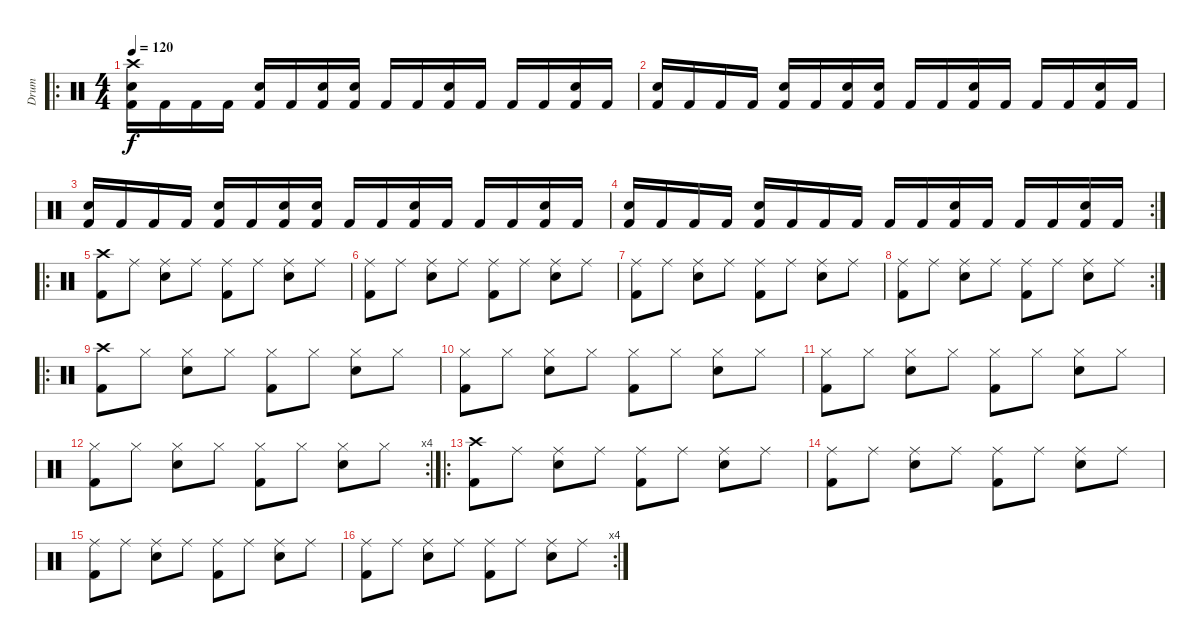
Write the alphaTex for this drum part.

\track ("Drum" "Drum") {instrument percussion}
\staff {score}
\articulation defaults
\ro
\ts (4 4)
\tempo 120
\clef neutral
\ks c
("Crash high (hit)" "Electric Snare (hit)" "Kick (hit) 2").16{dy f} "Kick (hit) 2".16 "Kick (hit) 2".16 "Kick (hit) 2".16 ("Electric Snare (hit)" "Kick (hit) 2").16 "Kick (hit) 2".16 ("Electric Snare (hit)" "Kick (hit) 2").16 ("Electric Snare (hit)" "Kick (hit) 2").16 "Kick (hit) 2".16 "Kick (hit) 2".16 ("Electric Snare (hit)" "Kick (hit) 2").16 "Kick (hit) 2".16 "Kick (hit) 2".16 "Kick (hit) 2".16 ("Electric Snare (hit)" "Kick (hit) 2").16 "Kick (hit) 2".16 |
("Electric Snare (hit)" "Kick (hit) 2").16 "Kick (hit) 2".16 "Kick (hit) 2".16 "Kick (hit) 2".16 ("Electric Snare (hit)" "Kick (hit) 2").16 "Kick (hit) 2".16 ("Electric Snare (hit)" "Kick (hit) 2").16 ("Electric Snare (hit)" "Kick (hit) 2").16 "Kick (hit) 2".16 "Kick (hit) 2".16 ("Electric Snare (hit)" "Kick (hit) 2").16 "Kick (hit) 2".16 "Kick (hit) 2".16 "Kick (hit) 2".16 ("Electric Snare (hit)" "Kick (hit) 2").16 "Kick (hit) 2".16 |
("Electric Snare (hit)" "Kick (hit) 2").16 "Kick (hit) 2".16 "Kick (hit) 2".16 "Kick (hit) 2".16 ("Electric Snare (hit)" "Kick (hit) 2").16 "Kick (hit) 2".16 ("Electric Snare (hit)" "Kick (hit) 2").16 ("Electric Snare (hit)" "Kick (hit) 2").16 "Kick (hit) 2".16 "Kick (hit) 2".16 ("Electric Snare (hit)" "Kick (hit) 2").16 "Kick (hit) 2".16 "Kick (hit) 2".16 "Kick (hit) 2".16 ("Electric Snare (hit)" "Kick (hit) 2").16 "Kick (hit) 2".16 |
\rc 2
("Electric Snare (hit)" "Kick (hit) 2").16 "Kick (hit) 2".16 "Kick (hit) 2".16 "Kick (hit) 2".16 ("Electric Snare (hit)" "Kick (hit) 2").16 "Kick (hit) 2".16 "Kick (hit) 2".16 "Kick (hit) 2".16 "Kick (hit) 2".16 "Kick (hit) 2".16 ("Electric Snare (hit)" "Kick (hit) 2").16 "Kick (hit) 2".16 "Kick (hit) 2".16 "Kick (hit) 2".16 ("Electric Snare (hit)" "Kick (hit) 2").16 "Kick (hit) 2".16 |
\ro
("Crash high (hit)" "Kick (hit) 2").8 "Ride (middle)".8 ("Ride (middle)" "Electric Snare (hit)").8 "Ride (middle)".8 ("Ride (middle)" "Kick (hit) 2").8 "Ride (middle)".8 ("Ride (middle)" "Electric Snare (hit)").8 "Ride (middle)".8 |
("Ride (middle)" "Kick (hit) 2").8 "Ride (middle)".8 ("Ride (middle)" "Electric Snare (hit)").8 "Ride (middle)".8 ("Ride (middle)" "Kick (hit) 2").8 "Ride (middle)".8 ("Ride (middle)" "Electric Snare (hit)").8 "Ride (middle)".8 |
("Ride (middle)" "Kick (hit) 2").8 "Ride (middle)".8 ("Ride (middle)" "Electric Snare (hit)").8 "Ride (middle)".8 ("Ride (middle)" "Kick (hit) 2").8 "Ride (middle)".8 ("Ride (middle)" "Electric Snare (hit)").8 "Ride (middle)".8 |
\rc 2
("Ride (middle)" "Kick (hit) 2").8 "Ride (middle)".8 ("Ride (middle)" "Electric Snare (hit)").8 "Ride (middle)".8 ("Ride (middle)" "Kick (hit) 2").8 "Ride (middle)".8 ("Ride (middle)" "Electric Snare (hit)").8 "Ride (middle)".8 |
\ro
("Crash high (hit)" "Kick (hit) 2").8 "Hi-Hat (closed)".8 ("Hi-Hat (closed)" "Electric Snare (hit)").8 "Hi-Hat (closed)".8 ("Hi-Hat (closed)" "Kick (hit) 2").8 "Hi-Hat (closed)".8 ("Hi-Hat (closed)" "Electric Snare (hit)").8 "Hi-Hat (closed)".8 |
("Hi-Hat (closed)" "Kick (hit) 2").8 "Hi-Hat (closed)".8 ("Hi-Hat (closed)" "Electric Snare (hit)").8 "Hi-Hat (closed)".8 ("Hi-Hat (closed)" "Kick (hit) 2").8 "Hi-Hat (closed)".8 ("Hi-Hat (closed)" "Electric Snare (hit)").8 "Hi-Hat (closed)".8 |
("Hi-Hat (closed)" "Kick (hit) 2").8 "Hi-Hat (closed)".8 ("Hi-Hat (closed)" "Electric Snare (hit)").8 "Hi-Hat (closed)".8 ("Hi-Hat (closed)" "Kick (hit) 2").8 "Hi-Hat (closed)".8 ("Hi-Hat (closed)" "Electric Snare (hit)").8 "Hi-Hat (closed)".8 |
\rc 4
("Hi-Hat (closed)" "Kick (hit) 2").8 "Hi-Hat (closed)".8 ("Hi-Hat (closed)" "Electric Snare (hit)").8 "Hi-Hat (closed)".8 ("Hi-Hat (closed)" "Kick (hit) 2").8 "Hi-Hat (closed)".8 ("Hi-Hat (closed)" "Electric Snare (hit)").8 "Hi-Hat (closed)".8 |
\ro
("Crash high (hit)" "Kick (hit) 2").8 "Ride (middle)".8 ("Ride (middle)" "Electric Snare (hit)").8 "Ride (middle)".8 ("Ride (middle)" "Kick (hit) 2").8 "Ride (middle)".8 ("Ride (middle)" "Electric Snare (hit)").8 "Ride (middle)".8 |
("Ride (middle)" "Kick (hit) 2").8 "Ride (middle)".8 ("Ride (middle)" "Electric Snare (hit)").8 "Ride (middle)".8 ("Ride (middle)" "Kick (hit) 2").8 "Ride (middle)".8 ("Ride (middle)" "Electric Snare (hit)").8 "Ride (middle)".8 |
("Ride (middle)" "Kick (hit) 2").8 "Ride (middle)".8 ("Ride (middle)" "Electric Snare (hit)").8 "Ride (middle)".8 ("Ride (middle)" "Kick (hit) 2").8 "Ride (middle)".8 ("Ride (middle)" "Electric Snare (hit)").8 "Ride (middle)".8 |
\rc 4
("Ride (middle)" "Kick (hit) 2").8 "Ride (middle)".8 ("Ride (middle)" "Electric Snare (hit)").8 "Ride (middle)".8 ("Ride (middle)" "Kick (hit) 2").8 "Ride (middle)".8 ("Ride (middle)" "Electric Snare (hit)").8 "Ride (middle)".8
